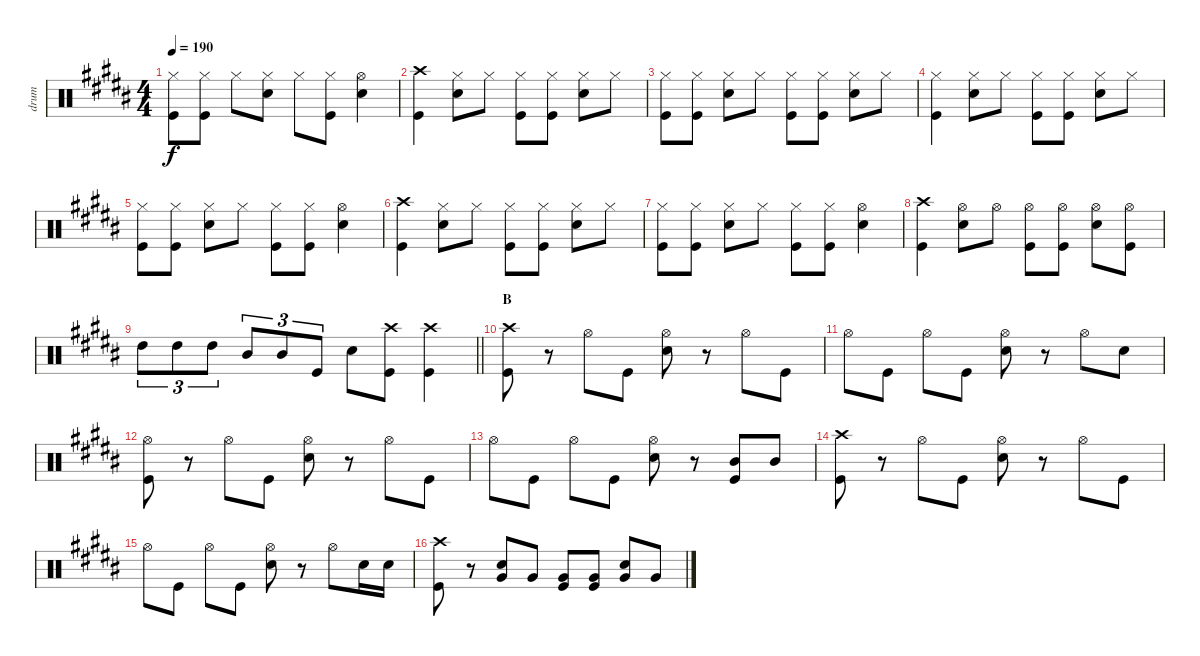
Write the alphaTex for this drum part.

\track ("drum" "drum") {instrument percussion}
\staff {score}
\articulation defaults
\ts (4 4)
\tempo 190
\clef neutral
\ks b
("Hi-Hat (closed)" "Kick (hit)").8{dy f} ("Hi-Hat (closed)" "Kick (hit)").8 "Hi-Hat (closed)".8 ("Hi-Hat (closed)" "Snare (hit) 2").8 "Hi-Hat (closed)".8 ("Hi-Hat (closed)" "Kick (hit)").8 ("Hi-Hat (open)" "Snare (hit) 2").4 |
("Crash high (hit)" "Kick (hit)").4 ("Hi-Hat (closed)" "Snare (hit) 2").8 "Hi-Hat (closed)".8 ("Hi-Hat (closed)" "Kick (hit)").8 ("Hi-Hat (closed)" "Kick (hit)").8 ("Hi-Hat (closed)" "Snare (hit) 2").8 "Hi-Hat (closed)".8 |
("Hi-Hat (closed)" "Kick (hit)").8 ("Hi-Hat (closed)" "Kick (hit)").8 ("Hi-Hat (closed)" "Snare (hit) 2").8 "Hi-Hat (closed)".8 ("Hi-Hat (closed)" "Kick (hit)").8 ("Hi-Hat (closed)" "Kick (hit)").8 ("Hi-Hat (closed)" "Snare (hit) 2").8 "Hi-Hat (closed)".8 |
("Hi-Hat (closed)" "Kick (hit)").4 ("Hi-Hat (closed)" "Snare (hit) 2").8 "Hi-Hat (closed)".8 ("Hi-Hat (closed)" "Kick (hit)").8 ("Hi-Hat (closed)" "Kick (hit)").8 ("Hi-Hat (closed)" "Snare (hit) 2").8 "Hi-Hat (closed)".8 |
("Hi-Hat (closed)" "Kick (hit)").8 ("Hi-Hat (closed)" "Kick (hit)").8 ("Hi-Hat (closed)" "Snare (hit) 2").8 "Hi-Hat (closed)".8 ("Hi-Hat (closed)" "Kick (hit)").8 ("Hi-Hat (closed)" "Kick (hit)").8 ("Hi-Hat (open)" "Snare (hit) 2").4 |
("Crash high (hit)" "Kick (hit)").4 ("Hi-Hat (closed)" "Snare (hit) 2").8 "Hi-Hat (closed)".8 ("Hi-Hat (closed)" "Kick (hit)").8 ("Hi-Hat (closed)" "Kick (hit)").8 ("Hi-Hat (closed)" "Snare (hit) 2").8 "Hi-Hat (closed)".8 |
("Hi-Hat (closed)" "Kick (hit)").8 ("Hi-Hat (closed)" "Kick (hit)").8 ("Hi-Hat (closed)" "Snare (hit) 2").8 "Hi-Hat (closed)".8 ("Hi-Hat (closed)" "Kick (hit)").8 ("Hi-Hat (closed)" "Kick (hit)").8 ("Hi-Hat (open)" "Snare (hit) 2").4 |
("Crash high (hit)" "Kick (hit)").4 ("Hi-Hat (open)" "Snare (hit) 2").8 "Hi-Hat (open)".8 ("Hi-Hat (open)" "Kick (hit)").8 ("Hi-Hat (open)" "Kick (hit)").8 ("Hi-Hat (open)" "Snare (hit) 2").8 ("Hi-Hat (open)" "Kick (hit)").8 |
\barLineRight lightlight "High Tom (hit)".8{tu (3 2)} "High Tom (hit)".8{tu (3 2)} "High Tom (hit)".8{tu (3 2)} "Mid Tom (hit)".8{tu (3 2)} "Mid Tom (hit)".8{tu (3 2)} "Kick (hit)".8{tu (3 2)} "Snare (hit) 2".8
("Crash high (hit)" "Kick (hit)").8 ("Crash high (hit)" "Kick (hit)").4 |
\section ("" "B")
("Crash high (hit)" "Kick (hit)").8 r.8 "Hi-Hat (open)".8 "Kick (hit)".8 ("Hi-Hat (open)" "Snare (hit) 2").8 r.8 "Hi-Hat (open)".8 "Kick (hit)".8 |
"Hi-Hat (open)".8 "Kick (hit)".8 "Hi-Hat (open)".8 "Kick (hit)".8 ("Hi-Hat (open)" "Snare (hit) 2").8 r.8 "Hi-Hat (open)".8 "Snare (hit) 2".8 |
("Hi-Hat (open)" "Kick (hit)").8 r.8 "Hi-Hat (open)".8 "Kick (hit)".8 ("Hi-Hat (open)" "Snare (hit) 2").8 r.8 "Hi-Hat (open)".8 "Kick (hit)".8 |
"Hi-Hat (open)".8 "Kick (hit)".8 "Hi-Hat (open)".8 "Kick (hit)".8 ("Hi-Hat (open)" "Snare (hit) 2").8 r.8 ("Mid Tom (hit)" "Kick (hit)").8 "Mid Tom (hit)".8 |
("Crash high (hit)" "Kick (hit)").8 r.8 "Hi-Hat (open)".8 "Kick (hit)".8 ("Hi-Hat (open)" "Snare (hit) 2").8 r.8 "Hi-Hat (open)".8 "Kick (hit)".8 |
"Hi-Hat (open)".8 "Kick (hit)".8 "Hi-Hat (open)".8 "Kick (hit)".8 ("Hi-Hat (open)" "Snare (hit) 2").8 r.8 "Hi-Hat (open)".8 "Snare (hit) 2".16 "Snare (hit) 2".16 |
("Crash high (hit)" "Kick (hit)").8 r.8 ("Snare (hit) 2" "Very Low Tom (hit)").8 "Very Low Tom (hit)".8 ("Very Low Tom (hit)" "Kick (hit)").8 ("Very Low Tom (hit)" "Kick (hit)").8 ("Snare (hit) 2" "Very Low Tom (hit)").8 "Very Low Tom (hit)".8
